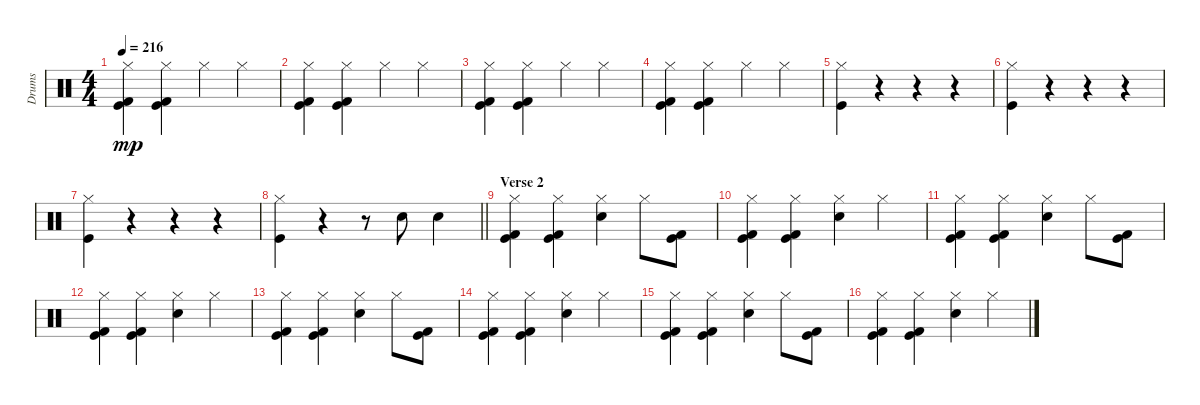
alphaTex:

\track ("Drums" "Drums") {instrument percussion}
\staff {score}
\articulation defaults
\ts (4 4)
\tempo 216
\clef neutral
\ks c
("Hi-Hat (closed)" "Kick (hit) 2" "Kick (hit)").4{dy mp} ("Hi-Hat (closed)" "Kick (hit) 2" "Kick (hit)").4 "Hi-Hat (closed)".4 "Hi-Hat (closed)".4 |
("Hi-Hat (closed)" "Kick (hit) 2" "Kick (hit)").4 ("Hi-Hat (closed)" "Kick (hit) 2" "Kick (hit)").4 "Hi-Hat (closed)".4 "Hi-Hat (closed)".4 |
("Hi-Hat (closed)" "Kick (hit) 2" "Kick (hit)").4 ("Hi-Hat (closed)" "Kick (hit) 2" "Kick (hit)").4 "Hi-Hat (closed)".4 "Hi-Hat (closed)".4 |
("Hi-Hat (closed)" "Kick (hit) 2" "Kick (hit)").4 ("Hi-Hat (closed)" "Kick (hit) 2" "Kick (hit)").4 "Hi-Hat (closed)".4 "Hi-Hat (closed)".4 |
("Hi-Hat (closed)" "Kick (hit)").4 r.4 r.4 r.4 |
("Hi-Hat (closed)" "Kick (hit)").4 r.4 r.4 r.4 |
("Hi-Hat (closed)" "Kick (hit)").4 r.4 r.4 r.4 |
\barLineRight lightlight
("Hi-Hat (closed)" "Kick (hit)").4 r.4 r.8 "Snare (hit) 2".8 "Snare (hit) 2".4 |
\section ("" "Verse 2")
("Hi-Hat (closed)" "Kick (hit)" "Kick (hit) 2").4 ("Hi-Hat (closed)" "Kick (hit)" "Kick (hit) 2").4 ("Hi-Hat (closed)" "Snare (hit) 2").4 "Hi-Hat (closed)".8 ("Kick (hit)" "Kick (hit) 2").8 |
("Hi-Hat (closed)" "Kick (hit)" "Kick (hit) 2").4 ("Hi-Hat (closed)" "Kick (hit)" "Kick (hit) 2").4 ("Hi-Hat (closed)" "Snare (hit) 2").4 "Hi-Hat (closed)".4 |
("Hi-Hat (closed)" "Kick (hit)" "Kick (hit) 2").4 ("Hi-Hat (closed)" "Kick (hit)" "Kick (hit) 2").4 ("Hi-Hat (closed)" "Snare (hit) 2").4 "Hi-Hat (closed)".8 ("Kick (hit)" "Kick (hit) 2").8 |
("Hi-Hat (closed)" "Kick (hit)" "Kick (hit) 2").4 ("Hi-Hat (closed)" "Kick (hit)" "Kick (hit) 2").4 ("Hi-Hat (closed)" "Snare (hit) 2").4 "Hi-Hat (closed)".4 |
("Hi-Hat (closed)" "Kick (hit)" "Kick (hit) 2").4 ("Hi-Hat (closed)" "Kick (hit)" "Kick (hit) 2").4 ("Hi-Hat (closed)" "Snare (hit) 2").4 "Hi-Hat (closed)".8 ("Kick (hit)" "Kick (hit) 2").8 |
("Hi-Hat (closed)" "Kick (hit)" "Kick (hit) 2").4 ("Hi-Hat (closed)" "Kick (hit)" "Kick (hit) 2").4 ("Hi-Hat (closed)" "Snare (hit) 2").4 "Hi-Hat (closed)".4 |
("Hi-Hat (closed)" "Kick (hit)" "Kick (hit) 2").4 ("Hi-Hat (closed)" "Kick (hit)" "Kick (hit) 2").4 ("Hi-Hat (closed)" "Snare (hit) 2").4 "Hi-Hat (closed)".8 ("Kick (hit)" "Kick (hit) 2").8 |
("Hi-Hat (closed)" "Kick (hit)" "Kick (hit) 2").4 ("Hi-Hat (closed)" "Kick (hit)" "Kick (hit) 2").4 ("Hi-Hat (closed)" "Snare (hit) 2").4 "Hi-Hat (closed)".4
